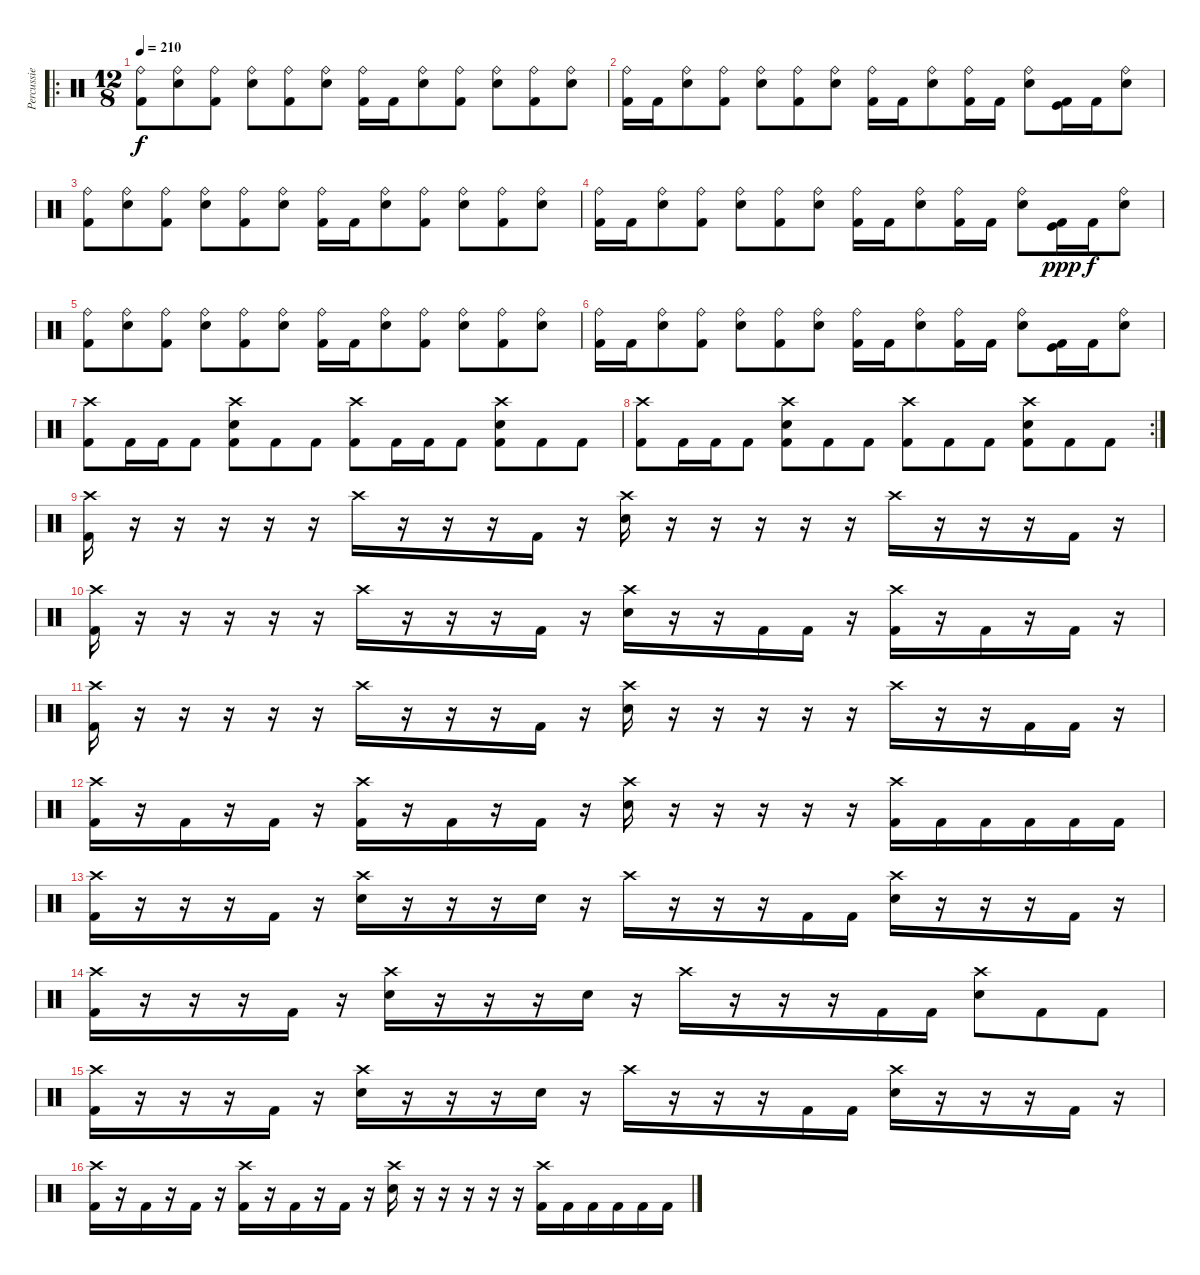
\track ("Percussie" "Percussie") {instrument percussion}
\staff {score}
\articulation defaults
\ro
\ts (12 8)
\tempo 210
\clef neutral
\ks c
("Kick (hit) 2" "Ride (bell)").8{dy f} ("Snare (hit) 2" "Ride (bell)").8 ("Kick (hit) 2" "Ride (bell)").8 ("Snare (hit) 2" "Ride (bell)").8 ("Kick (hit) 2" "Ride (bell)").8 ("Snare (hit) 2" "Ride (bell)").8 ("Kick (hit) 2" "Ride (bell)").16 "Kick (hit) 2".16 ("Snare (hit) 2" "Ride (bell)").8 ("Kick (hit) 2" "Ride (bell)").8 ("Snare (hit) 2" "Ride (bell)").8 ("Kick (hit) 2" "Ride (bell)").8 ("Snare (hit) 2" "Ride (bell)").8 |
("Kick (hit) 2" "Ride (bell)").16 "Kick (hit) 2".16 ("Snare (hit) 2" "Ride (bell)").8 ("Kick (hit) 2" "Ride (bell)").8 ("Snare (hit) 2" "Ride (bell)").8 ("Kick (hit) 2" "Ride (bell)").8 ("Snare (hit) 2" "Ride (bell)").8 ("Kick (hit) 2" "Ride (bell)").16 "Kick (hit) 2".16 ("Snare (hit) 2" "Ride (bell)").8 ("Kick (hit) 2" "Ride (bell)").16 "Kick (hit) 2".16 ("Snare (hit) 2" "Ride (bell)").8 ("Kick (hit) 2" "Kick (hit)").16 "Kick (hit) 2".16 ("Snare (hit) 2" "Ride (bell)").8 |
("Kick (hit) 2" "Ride (bell)").8 ("Snare (hit) 2" "Ride (bell)").8 ("Kick (hit) 2" "Ride (bell)").8 ("Snare (hit) 2" "Ride (bell)").8 ("Kick (hit) 2" "Ride (bell)").8 ("Snare (hit) 2" "Ride (bell)").8 ("Kick (hit) 2" "Ride (bell)").16 "Kick (hit) 2".16 ("Snare (hit) 2" "Ride (bell)").8 ("Kick (hit) 2" "Ride (bell)").8 ("Snare (hit) 2" "Ride (bell)").8 ("Kick (hit) 2" "Ride (bell)").8 ("Snare (hit) 2" "Ride (bell)").8 |
("Kick (hit) 2" "Ride (bell)").16 "Kick (hit) 2".16 ("Snare (hit) 2" "Ride (bell)").8 ("Kick (hit) 2" "Ride (bell)").8 ("Snare (hit) 2" "Ride (bell)").8 ("Kick (hit) 2" "Ride (bell)").8 ("Snare (hit) 2" "Ride (bell)").8 ("Kick (hit) 2" "Ride (bell)").16 "Kick (hit) 2".16 ("Snare (hit) 2" "Ride (bell)").8 ("Kick (hit) 2" "Ride (bell)").16 "Kick (hit) 2".16 ("Snare (hit) 2" "Ride (bell)").8 ("Kick (hit) 2" "Kick (hit)").16{dy ppp} "Kick (hit) 2".16{dy f} ("Snare (hit) 2" "Ride (bell)").8 |
("Kick (hit) 2" "Ride (bell)").8 ("Snare (hit) 2" "Ride (bell)").8 ("Kick (hit) 2" "Ride (bell)").8 ("Snare (hit) 2" "Ride (bell)").8 ("Kick (hit) 2" "Ride (bell)").8 ("Snare (hit) 2" "Ride (bell)").8 ("Kick (hit) 2" "Ride (bell)").16 "Kick (hit) 2".16 ("Snare (hit) 2" "Ride (bell)").8 ("Kick (hit) 2" "Ride (bell)").8 ("Snare (hit) 2" "Ride (bell)").8 ("Kick (hit) 2" "Ride (bell)").8 ("Snare (hit) 2" "Ride (bell)").8 |
("Kick (hit) 2" "Ride (bell)").16 "Kick (hit) 2".16 ("Snare (hit) 2" "Ride (bell)").8 ("Kick (hit) 2" "Ride (bell)").8 ("Snare (hit) 2" "Ride (bell)").8 ("Kick (hit) 2" "Ride (bell)").8 ("Snare (hit) 2" "Ride (bell)").8 ("Kick (hit) 2" "Ride (bell)").16 "Kick (hit) 2".16 ("Snare (hit) 2" "Ride (bell)").8 ("Kick (hit) 2" "Ride (bell)").16 "Kick (hit) 2".16 ("Snare (hit) 2" "Ride (bell)").8 ("Kick (hit) 2" "Kick (hit)").16 "Kick (hit) 2".16 ("Snare (hit) 2" "Ride (bell)").8 |
("Kick (hit) 2" "Crash high (hit)").8 "Kick (hit) 2".16 "Kick (hit) 2".16 "Kick (hit) 2".8 ("Kick (hit) 2" "Snare (hit) 2" "Crash high (hit)").8 "Kick (hit) 2".8 "Kick (hit) 2".8 ("Kick (hit) 2" "Crash high (hit)").8 "Kick (hit) 2".16 "Kick (hit) 2".16 "Kick (hit) 2".8 ("Kick (hit) 2" "Snare (hit) 2" "Crash high (hit)").8 "Kick (hit) 2".8 "Kick (hit) 2".8 |
\rc 2
("Kick (hit) 2" "Crash high (hit)").8 "Kick (hit) 2".16 "Kick (hit) 2".16 "Kick (hit) 2".8 ("Kick (hit) 2" "Snare (hit) 2" "Crash high (hit)").8 "Kick (hit) 2".8 "Kick (hit) 2".8 ("Kick (hit) 2" "Crash high (hit)").8 "Kick (hit) 2".8 "Kick (hit) 2".8 ("Kick (hit) 2" "Snare (hit) 2" "Crash high (hit)").8 "Kick (hit) 2".8 "Kick (hit) 2".8 |
("Crash high (hit)" "Kick (hit) 2").16 r.16 r.16 r.16 r.16 r.16 "Crash high (hit)".16 r.16 r.16 r.16 "Kick (hit) 2".16 r.16 ("Crash high (hit)" "Snare (hit) 2").16 r.16 r.16 r.16 r.16 r.16 "Crash high (hit)".16 r.16 r.16 r.16 "Kick (hit) 2".16 r.16 |
("Crash high (hit)" "Kick (hit) 2").16 r.16 r.16 r.16 r.16 r.16 "Crash high (hit)".16 r.16 r.16 r.16 "Kick (hit) 2".16 r.16 ("Crash high (hit)" "Snare (hit) 2").16 r.16 r.16 "Kick (hit) 2".16 "Kick (hit) 2".16 r.16 ("Crash high (hit)" "Kick (hit) 2").16 r.16 "Kick (hit) 2".16 r.16 "Kick (hit) 2".16 r.16 |
("Crash high (hit)" "Kick (hit) 2").16 r.16 r.16 r.16 r.16 r.16 "Crash high (hit)".16 r.16 r.16 r.16 "Kick (hit) 2".16 r.16 ("Crash high (hit)" "Snare (hit) 2").16 r.16 r.16 r.16 r.16 r.16 "Crash high (hit)".16 r.16 r.16 "Kick (hit) 2".16 "Kick (hit) 2".16 r.16 |
("Crash high (hit)" "Kick (hit) 2").16 r.16 "Kick (hit) 2".16 r.16 "Kick (hit) 2".16 r.16 ("Crash high (hit)" "Kick (hit) 2").16 r.16 "Kick (hit) 2".16 r.16 "Kick (hit) 2".16 r.16 ("Crash high (hit)" "Snare (hit) 2").16 r.16 r.16 r.16 r.16 r.16 ("Crash high (hit)" "Kick (hit) 2").16 "Kick (hit) 2".16 "Kick (hit) 2".16 "Kick (hit) 2".16 "Kick (hit) 2".16 "Kick (hit) 2".16 |
("Crash high (hit)" "Kick (hit) 2").16 r.16 r.16 r.16 "Kick (hit) 2".16 r.16 ("Crash high (hit)" "Snare (hit) 2").16 r.16 r.16 r.16 "Snare (hit) 2".16 r.16 "Crash high (hit)".16 r.16 r.16 r.16 "Kick (hit) 2".16 "Kick (hit) 2".16 ("Crash high (hit)" "Snare (hit) 2").16 r.16 r.16 r.16 "Kick (hit) 2".16 r.16 |
("Crash high (hit)" "Kick (hit) 2").16 r.16 r.16 r.16 "Kick (hit) 2".16 r.16 ("Crash high (hit)" "Snare (hit) 2").16 r.16 r.16 r.16 "Snare (hit) 2".16 r.16 "Crash high (hit)".16 r.16 r.16 r.16 "Kick (hit) 2".16 "Kick (hit) 2".16 ("Crash high (hit)" "Snare (hit) 2").8 "Kick (hit) 2".8 "Kick (hit) 2".8 |
("Crash high (hit)" "Kick (hit) 2").16 r.16 r.16 r.16 "Kick (hit) 2".16 r.16 ("Crash high (hit)" "Snare (hit) 2").16 r.16 r.16 r.16 "Snare (hit) 2".16 r.16 "Crash high (hit)".16 r.16 r.16 r.16 "Kick (hit) 2".16 "Kick (hit) 2".16 ("Crash high (hit)" "Snare (hit) 2").16 r.16 r.16 r.16 "Kick (hit) 2".16 r.16 |
("Crash high (hit)" "Kick (hit) 2").16 r.16 "Kick (hit) 2".16 r.16 "Kick (hit) 2".16 r.16 ("Crash high (hit)" "Kick (hit) 2").16 r.16 "Kick (hit) 2".16 r.16 "Kick (hit) 2".16 r.16 ("Crash high (hit)" "Snare (hit) 2").16 r.16 r.16 r.16 r.16 r.16 ("Crash high (hit)" "Kick (hit) 2").16 "Kick (hit) 2".16 "Kick (hit) 2".16 "Kick (hit) 2".16 "Kick (hit) 2".16 "Kick (hit) 2".16
